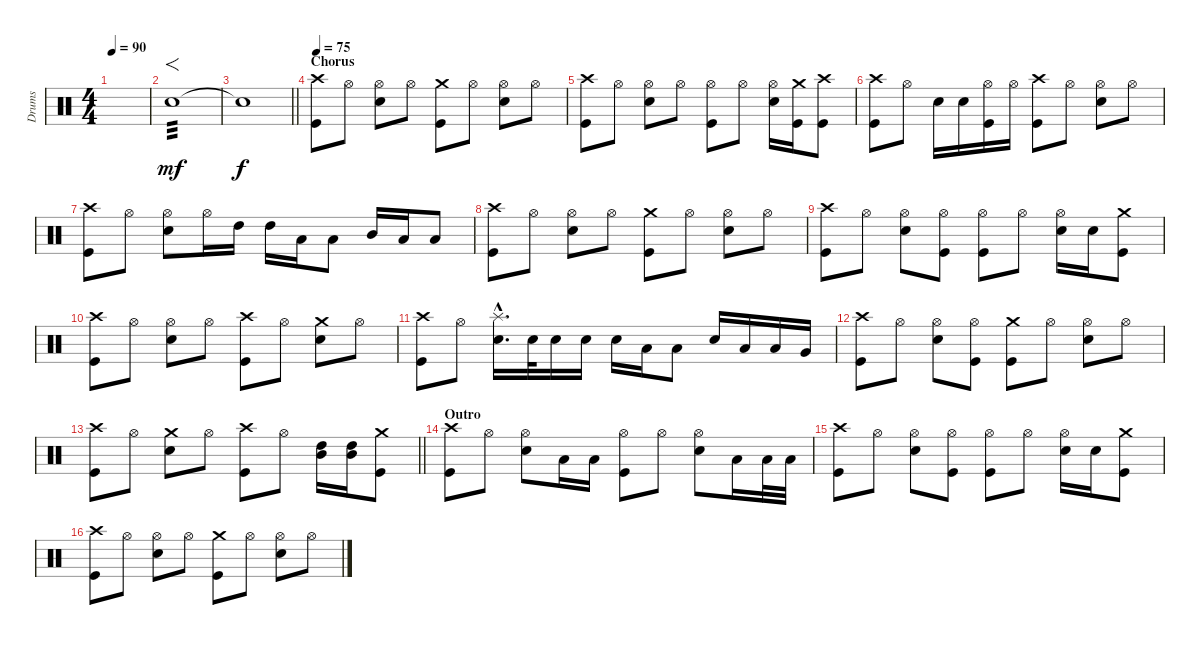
\track ("Drums" "Drums") {instrument percussion}
\staff {score}
\articulation defaults
\ts (4 4)
\tempo 90
\clef neutral
\ks c
|
"Snare (hit) 2".1{f tp 3 dy mf} |
\barLineRight lightlight "Snare (hit)"{t}.1{dy f}
|
\section ("" "Chorus")
\tempo 75
("Crash high (hit)" "Kick (hit)").8 "Hi-Hat (open)".8 ("Hi-Hat (open)" "Snare (hit) 2").8 "Hi-Hat (open)".8 ("Crash medium (hit)" "Kick (hit)").8 "Hi-Hat (open)".8 ("Hi-Hat (open)" "Snare (hit) 2").8 "Hi-Hat (open)".8 |
("Crash high (hit)" "Kick (hit)").8 "Hi-Hat (open)".8 ("Hi-Hat (open)" "Snare (hit) 2").8 "Hi-Hat (open)".8 ("Hi-Hat (open)" "Kick (hit)").8 "Hi-Hat (open)".8 ("Hi-Hat (open)" "Snare (hit) 2").16 ("Crash medium (hit)" "Kick (hit)").16 ("Crash high (hit)" "Kick (hit)").8 |
("Crash high (hit)" "Kick (hit)").8 "Hi-Hat (open)".8 "Snare (hit) 2".16 "Snare (hit) 2".16 ("Hi-Hat (open)" "Kick (hit)").16 "Hi-Hat (open)".16 ("Crash high (hit)" "Kick (hit)").8 "Hi-Hat (open)".8 ("Hi-Hat (open)" "Snare (hit) 2").8 "Hi-Hat (open)".8 |
("Crash high (hit)" "Kick (hit)").8 "Hi-Hat (open)".8 ("Hi-Hat (open)" "Snare (hit) 2").8 "Hi-Hat (open)".16 "High Tom (hit)".16 "High Tom (hit)".16 "Low Tom (hit)".16 "Low Tom (hit)".8 "Mid Tom (hit)".16 "Low Tom (hit)".16 "Low Tom (hit)".8 |
("Crash high (hit)" "Kick (hit)").8 "Hi-Hat (open)".8 ("Hi-Hat (open)" "Snare (hit) 2").8 "Hi-Hat (open)".8 ("Crash medium (hit)" "Kick (hit)").8 "Hi-Hat (open)".8 ("Hi-Hat (open)" "Snare (hit) 2").8 "Hi-Hat (open)".8 |
("Crash high (hit)" "Kick (hit)").8 "Hi-Hat (open)".8 ("Hi-Hat (open)" "Snare (hit) 2").8 ("Hi-Hat (open)" "Kick (hit)").8 ("Hi-Hat (open)" "Kick (hit)").8 "Hi-Hat (open)".8 ("Hi-Hat (open)" "Snare (hit) 2").16 "Snare (hit) 2".16 ("Crash medium (hit)" "Kick (hit)").8 |
("Crash high (hit)" "Kick (hit)").8 "Hi-Hat (open)".8 ("Hi-Hat (open)" "Snare (hit) 2").8 "Hi-Hat (open)".8 ("Crash high (hit)" "Kick (hit)").8 "Hi-Hat (open)".8 ("Crash medium (hit)" "Snare (hit) 2").8 "Hi-Hat (open)".8 |
("Crash high (hit)" "Kick (hit)").8 "Hi-Hat (open)".8 ("Splash (hit)"{hac} "Snare (hit) 2"{hac}).16{d} "Snare (hit) 2".32 "Snare (hit) 2".16 "Snare (hit) 2".16 "Snare (hit) 2".16 "Low Tom (hit)".16 "Low Tom (hit)".8 "Snare (hit) 2".16 "Low Tom (hit)".16 "Low Tom (hit)".16 "Very Low Tom (hit)".16 |
("Crash high (hit)" "Kick (hit)").8 "Hi-Hat (open)".8 ("Hi-Hat (open)" "Snare (hit) 2").8 ("Hi-Hat (open)" "Kick (hit)").8 ("Crash medium (hit)" "Kick (hit)").8 "Hi-Hat (open)".8 ("Hi-Hat (open)" "Snare (hit) 2").8 "Hi-Hat (open)".8 |
\barLineRight lightlight
("Crash high (hit)" "Kick (hit)").8 "Hi-Hat (open)".8 ("Crash medium (hit)" "Snare (hit) 2").8 "Hi-Hat (open)".8 ("Crash high (hit)" "Kick (hit)").8 "Hi-Hat (open)".8 ("High Tom (hit)" "Mid Tom (hit)").16 ("High Tom (hit)" "Mid Tom (hit)").16 ("Crash medium (hit)" "Kick (hit)").8 |
\section ("" "Outro")
("Crash high (hit)" "Kick (hit)").8 "Hi-Hat (open)".8 ("Hi-Hat (open)" "Snare (hit) 2").8 "Low Tom (hit)".16 "Low Tom (hit)".16 ("Hi-Hat (open)" "Kick (hit)").8 "Hi-Hat (open)".8 ("Hi-Hat (open)" "Snare (hit) 2").8 "Low Tom (hit)".16 "Low Tom (hit)".32 "Low Tom (hit)".32 |
("Crash high (hit)" "Kick (hit)").8 "Hi-Hat (open)".8 ("Hi-Hat (open)" "Snare (hit) 2").8 ("Hi-Hat (open)" "Kick (hit)").8 ("Hi-Hat (open)" "Kick (hit)").8 "Hi-Hat (open)".8 ("Hi-Hat (open)" "Snare (hit) 2").16 "Snare (hit) 2".16 ("Crash medium (hit)" "Kick (hit)").8 |
("Crash high (hit)" "Kick (hit)").8 "Hi-Hat (open)".8 ("Hi-Hat (open)" "Snare (hit) 2").8 "Hi-Hat (open)".8 ("Crash medium (hit)" "Kick (hit)").8 "Hi-Hat (open)".8 ("Hi-Hat (open)" "Snare (hit) 2").8 "Hi-Hat (open)".8
